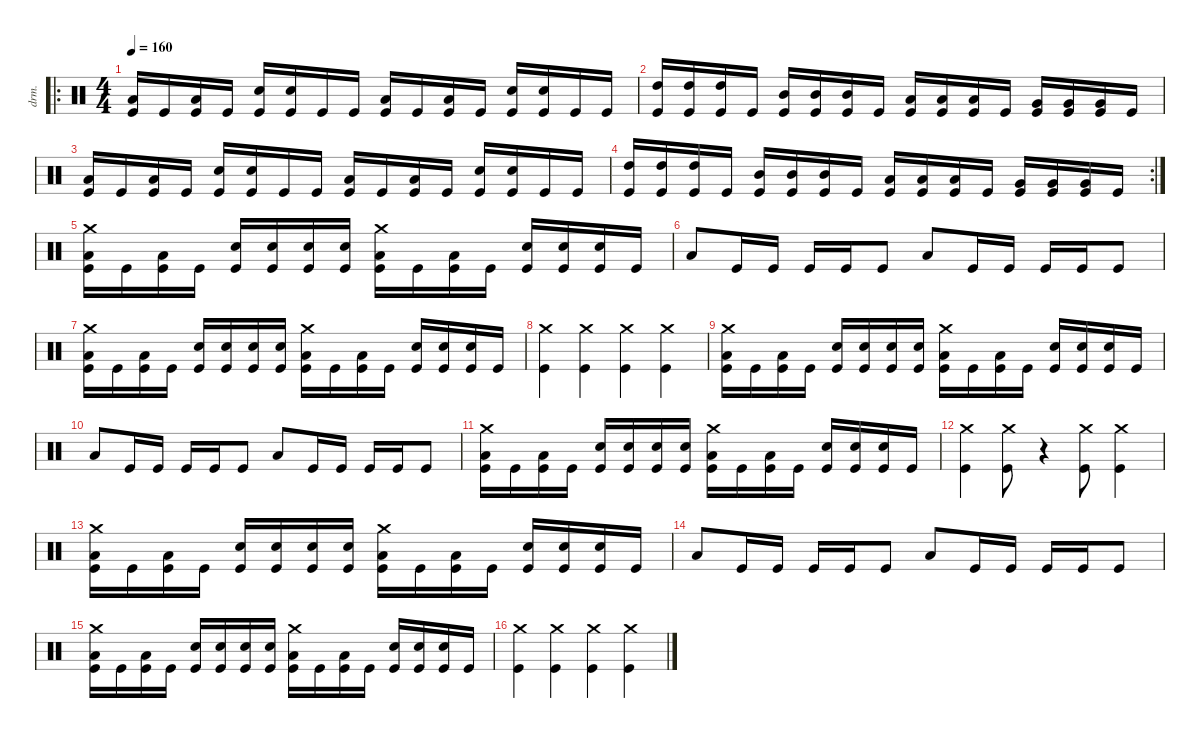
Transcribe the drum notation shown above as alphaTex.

\defaultSystemsLayout 4
\hideDynamics
\bracketExtendMode nobrackets
\otherSystemsTrackNameOrientation horizontal
\track ("Nick Menza" "drm.") {defaultSystemsLayout 4 instrument percussion}
\staff {score}
\articulation defaults
\ro
\ts (4 4)
\beaming (8 2 2 2 2)
\tempo 160
\clef neutral
\ks c
("Low Floor Tom (hit)" "Kick (hit)").16{dy f beam Up} "Kick (hit)".16{beam Up} ("Low Floor Tom (hit)" "Kick (hit)").16{beam Up} "Kick (hit)".16{beam Up} ("Snare (hit) 2" "Kick (hit)").16{beam Up} ("Snare (hit) 2" "Kick (hit)").16{beam Up} "Kick (hit)".16{beam Up} "Kick (hit)".16{beam Up} ("Low Floor Tom (hit)" "Kick (hit)").16{beam Up} "Kick (hit)".16{beam Up} ("Low Floor Tom (hit)" "Kick (hit)").16{beam Up} "Kick (hit)".16{beam Up} ("Snare (hit) 2" "Kick (hit)").16{beam Up} ("Snare (hit) 2" "Kick (hit)").16{beam Up} "Kick (hit)".16{beam Up} "Kick (hit)".16{beam Up} |
("High Tom (hit)" "Kick (hit)").16{beam Up} ("High Tom (hit)" "Kick (hit)").16{beam Up} ("High Tom (hit)" "Kick (hit)").16{beam Up} "Kick (hit)".16{beam Up} ("Mid Tom (hit)" "Kick (hit)").16{beam Up} ("Mid Tom (hit)" "Kick (hit)").16{beam Up} ("Mid Tom (hit)" "Kick (hit)").16{beam Up} "Kick (hit)".16{beam Up} ("Low Tom (hit)" "Kick (hit)").16{beam Up} ("Low Tom (hit)" "Kick (hit)").16{beam Up} ("Low Tom (hit)" "Kick (hit)").16{beam Up} "Kick (hit)".16{beam Up} ("Very Low Tom (hit)" "Kick (hit)").16{beam Up} ("Very Low Tom (hit)" "Kick (hit)").16{beam Up} ("Very Low Tom (hit)" "Kick (hit)").16{beam Up} "Kick (hit)".16{beam Up} |
("Low Floor Tom (hit)" "Kick (hit)").16{beam Up} "Kick (hit)".16{beam Up} ("Low Floor Tom (hit)" "Kick (hit)").16{beam Up} "Kick (hit)".16{beam Up} ("Snare (hit) 2" "Kick (hit)").16{beam Up} ("Snare (hit) 2" "Kick (hit)").16{beam Up} "Kick (hit)".16{beam Up} "Kick (hit)".16{beam Up} ("Low Floor Tom (hit)" "Kick (hit)").16{beam Up} "Kick (hit)".16{beam Up} ("Low Floor Tom (hit)" "Kick (hit)").16{beam Up} "Kick (hit)".16{beam Up} ("Snare (hit) 2" "Kick (hit)").16{beam Up} ("Snare (hit) 2" "Kick (hit)").16{beam Up} "Kick (hit)".16{beam Up} "Kick (hit)".16{beam Up} |
\rc 2
("High Tom (hit)" "Kick (hit)").16{beam Up} ("High Tom (hit)" "Kick (hit)").16{beam Up} ("High Tom (hit)" "Kick (hit)").16{beam Up} "Kick (hit)".16{beam Up} ("Mid Tom (hit)" "Kick (hit)").16{beam Up} ("Mid Tom (hit)" "Kick (hit)").16{beam Up} ("Mid Tom (hit)" "Kick (hit)").16{beam Up} "Kick (hit)".16{beam Up} ("Low Tom (hit)" "Kick (hit)").16{beam Up} ("Low Tom (hit)" "Kick (hit)").16{beam Up} ("Low Tom (hit)" "Kick (hit)").16{beam Up} "Kick (hit)".16{beam Up} ("Very Low Tom (hit)" "Kick (hit)").16{beam Up} ("Very Low Tom (hit)" "Kick (hit)").16{beam Up} ("Very Low Tom (hit)" "Kick (hit)").16{beam Up} "Kick (hit)".16{beam Up} |
("Crash medium (hit)" "Low Floor Tom (hit)" "Kick (hit)").16{beam Down} "Kick (hit)".16{beam Down} ("Low Floor Tom (hit)" "Kick (hit)").16{beam Down} "Kick (hit)".16{beam Down} ("Snare (hit) 2" "Kick (hit)").16{beam Up} ("Snare (hit) 2" "Kick (hit)").16{beam Up} ("Snare (hit) 2" "Kick (hit)").16{beam Up} ("Snare (hit) 2" "Kick (hit)").16{beam Up} ("Crash medium (hit)" "Low Floor Tom (hit)" "Kick (hit)").16{beam Down} "Kick (hit)".16{beam Down} ("Low Floor Tom (hit)" "Kick (hit)").16{beam Down} "Kick (hit)".16{beam Down} ("Snare (hit) 2" "Kick (hit)").16{beam Up} ("Snare (hit) 2" "Kick (hit)").16{beam Up} ("Snare (hit) 2" "Kick (hit)").16{beam Up} "Kick (hit)".16{beam Up} |
"Low Floor Tom (hit)".8{beam Up} "Kick (hit)".16{beam Up} "Kick (hit)".16{beam Up} "Kick (hit)".16{beam Up} "Kick (hit)".16{beam Up} "Kick (hit)".8{beam Up} "Low Floor Tom (hit)".8{beam Up} "Kick (hit)".16{beam Up} "Kick (hit)".16{beam Up} "Kick (hit)".16{beam Up} "Kick (hit)".16{beam Up} "Kick (hit)".8{beam Up} |
("Crash medium (hit)" "Low Floor Tom (hit)" "Kick (hit)").16{beam Down} "Kick (hit)".16{beam Down} ("Low Floor Tom (hit)" "Kick (hit)").16{beam Down} "Kick (hit)".16{beam Down} ("Snare (hit) 2" "Kick (hit)").16{beam Up} ("Snare (hit) 2" "Kick (hit)").16{beam Up} ("Snare (hit) 2" "Kick (hit)").16{beam Up} ("Snare (hit) 2" "Kick (hit)").16{beam Up} ("Crash medium (hit)" "Low Floor Tom (hit)" "Kick (hit)").16{beam Down} "Kick (hit)".16{beam Down} ("Low Floor Tom (hit)" "Kick (hit)").16{beam Down} "Kick (hit)".16{beam Down} ("Snare (hit) 2" "Kick (hit)").16{beam Up} ("Snare (hit) 2" "Kick (hit)").16{beam Up} ("Snare (hit) 2" "Kick (hit)").16{beam Up} "Kick (hit)".16{beam Up} |
("Crash medium (hit)" "Kick (hit)").4{beam Down} ("Crash medium (hit)" "Kick (hit)").4{beam Down} ("Crash medium (hit)" "Kick (hit)").4{beam Down} ("Crash medium (hit)" "Kick (hit)").4{beam Down} |
("Crash medium (hit)" "Low Floor Tom (hit)" "Kick (hit)").16{beam Down} "Kick (hit)".16{beam Down} ("Low Floor Tom (hit)" "Kick (hit)").16{beam Down} "Kick (hit)".16{beam Down} ("Snare (hit) 2" "Kick (hit)").16{beam Up} ("Snare (hit) 2" "Kick (hit)").16{beam Up} ("Snare (hit) 2" "Kick (hit)").16{beam Up} ("Snare (hit) 2" "Kick (hit)").16{beam Up} ("Crash medium (hit)" "Low Floor Tom (hit)" "Kick (hit)").16{beam Down} "Kick (hit)".16{beam Down} ("Low Floor Tom (hit)" "Kick (hit)").16{beam Down} "Kick (hit)".16{beam Down} ("Snare (hit) 2" "Kick (hit)").16{beam Up} ("Snare (hit) 2" "Kick (hit)").16{beam Up} ("Snare (hit) 2" "Kick (hit)").16{beam Up} "Kick (hit)".16{beam Up} |
"Low Floor Tom (hit)".8{beam Up} "Kick (hit)".16{beam Up} "Kick (hit)".16{beam Up} "Kick (hit)".16{beam Up} "Kick (hit)".16{beam Up} "Kick (hit)".8{beam Up} "Low Floor Tom (hit)".8{beam Up} "Kick (hit)".16{beam Up} "Kick (hit)".16{beam Up} "Kick (hit)".16{beam Up} "Kick (hit)".16{beam Up} "Kick (hit)".8{beam Up} |
("Crash medium (hit)" "Low Floor Tom (hit)" "Kick (hit)").16{beam Down} "Kick (hit)".16{beam Down} ("Low Floor Tom (hit)" "Kick (hit)").16{beam Down} "Kick (hit)".16{beam Down} ("Snare (hit) 2" "Kick (hit)").16{beam Up} ("Snare (hit) 2" "Kick (hit)").16{beam Up} ("Snare (hit) 2" "Kick (hit)").16{beam Up} ("Snare (hit) 2" "Kick (hit)").16{beam Up} ("Crash medium (hit)" "Low Floor Tom (hit)" "Kick (hit)").16{beam Down} "Kick (hit)".16{beam Down} ("Low Floor Tom (hit)" "Kick (hit)").16{beam Down} "Kick (hit)".16{beam Down} ("Snare (hit) 2" "Kick (hit)").16{beam Up} ("Snare (hit) 2" "Kick (hit)").16{beam Up} ("Snare (hit) 2" "Kick (hit)").16{beam Up} "Kick (hit)".16{beam Up} |
("Crash medium (hit)" "Kick (hit)").4{beam Down} ("Crash medium (hit)" "Kick (hit)").8{beam Down} r.4{beam Down} ("Crash medium (hit)" "Kick (hit)").8{beam Down} ("Crash medium (hit)" "Kick (hit)").4{beam Down} |
("Crash medium (hit)" "Low Floor Tom (hit)" "Kick (hit)").16{beam Down} "Kick (hit)".16{beam Down} ("Low Floor Tom (hit)" "Kick (hit)").16{beam Down} "Kick (hit)".16{beam Down} ("Snare (hit) 2" "Kick (hit)").16{beam Up} ("Snare (hit) 2" "Kick (hit)").16{beam Up} ("Snare (hit) 2" "Kick (hit)").16{beam Up} ("Snare (hit) 2" "Kick (hit)").16{beam Up} ("Crash medium (hit)" "Low Floor Tom (hit)" "Kick (hit)").16{beam Down} "Kick (hit)".16{beam Down} ("Low Floor Tom (hit)" "Kick (hit)").16{beam Down} "Kick (hit)".16{beam Down} ("Snare (hit) 2" "Kick (hit)").16{beam Up} ("Snare (hit) 2" "Kick (hit)").16{beam Up} ("Snare (hit) 2" "Kick (hit)").16{beam Up} "Kick (hit)".16{beam Up} |
"Low Floor Tom (hit)".8{beam Up} "Kick (hit)".16{beam Up} "Kick (hit)".16{beam Up} "Kick (hit)".16{beam Up} "Kick (hit)".16{beam Up} "Kick (hit)".8{beam Up} "Low Floor Tom (hit)".8{beam Up} "Kick (hit)".16{beam Up} "Kick (hit)".16{beam Up} "Kick (hit)".16{beam Up} "Kick (hit)".16{beam Up} "Kick (hit)".8{beam Up} |
("Crash medium (hit)" "Low Floor Tom (hit)" "Kick (hit)").16{beam Down} "Kick (hit)".16{beam Down} ("Low Floor Tom (hit)" "Kick (hit)").16{beam Down} "Kick (hit)".16{beam Down} ("Snare (hit) 2" "Kick (hit)").16{beam Up} ("Snare (hit) 2" "Kick (hit)").16{beam Up} ("Snare (hit) 2" "Kick (hit)").16{beam Up} ("Snare (hit) 2" "Kick (hit)").16{beam Up} ("Crash medium (hit)" "Low Floor Tom (hit)" "Kick (hit)").16{beam Down} "Kick (hit)".16{beam Down} ("Low Floor Tom (hit)" "Kick (hit)").16{beam Down} "Kick (hit)".16{beam Down} ("Snare (hit) 2" "Kick (hit)").16{beam Up} ("Snare (hit) 2" "Kick (hit)").16{beam Up} ("Snare (hit) 2" "Kick (hit)").16{beam Up} "Kick (hit)".16{beam Up} |
("Crash medium (hit)" "Kick (hit)").4{beam Down} ("Crash medium (hit)" "Kick (hit)").4{beam Down} ("Crash medium (hit)" "Kick (hit)").4{beam Down} ("Crash medium (hit)" "Kick (hit)").4{beam Down}
